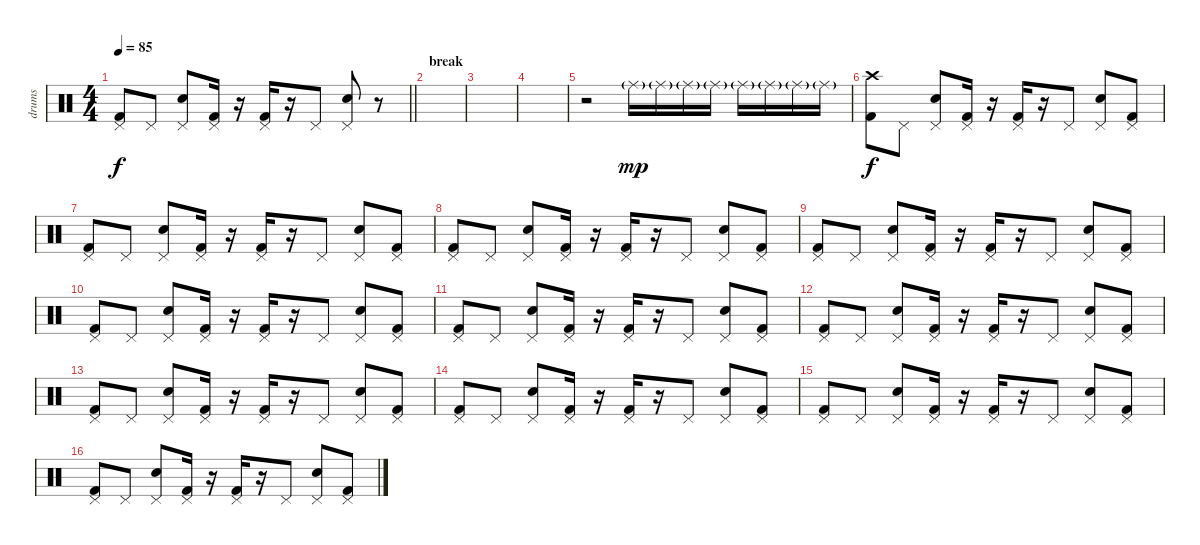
\track ("drums" "drums") {instrument percussion}
\staff {score}
\articulation defaults
\ts (4 4)
\tempo 85
\clef neutral
\barLineRight lightlight
\ks c
("Kick (hit) 2" "Pedal Hi-Hat (hit)").8{dy f} "Pedal Hi-Hat (hit)".8 ("Electric Snare (hit)" "Pedal Hi-Hat (hit)").8 ("Kick (hit) 2" "Pedal Hi-Hat (hit)").16 r.16 ("Kick (hit) 2" "Pedal Hi-Hat (hit)").16 r.16 "Pedal Hi-Hat (hit)".8 ("Electric Snare (hit)" "Pedal Hi-Hat (hit)").8 r.8 |
\section ("" "break")
|
|
|
r.2 "Ride (middle)"{g}.16{dy mp} "Ride (middle)"{g}.16 "Ride (middle)"{g}.16 "Ride (middle)"{g}.16 "Ride (middle)"{g}.16 "Ride (middle)"{g}.16 "Ride (middle)"{g}.16 "Ride (middle)"{g}.16 |
("Kick (hit) 2" "Crash high (hit)").8{dy f} "Pedal Hi-Hat (hit)".8 ("Electric Snare (hit)" "Pedal Hi-Hat (hit)").8 ("Kick (hit) 2" "Pedal Hi-Hat (hit)").16 r.16 ("Kick (hit) 2" "Pedal Hi-Hat (hit)").16 r.16 "Pedal Hi-Hat (hit)".8 ("Electric Snare (hit)" "Pedal Hi-Hat (hit)").8 ("Kick (hit) 2" "Pedal Hi-Hat (hit)").8 |
("Kick (hit) 2" "Pedal Hi-Hat (hit)").8 "Pedal Hi-Hat (hit)".8 ("Electric Snare (hit)" "Pedal Hi-Hat (hit)").8 ("Kick (hit) 2" "Pedal Hi-Hat (hit)").16 r.16 ("Kick (hit) 2" "Pedal Hi-Hat (hit)").16 r.16 "Pedal Hi-Hat (hit)".8 ("Electric Snare (hit)" "Pedal Hi-Hat (hit)").8 ("Kick (hit) 2" "Pedal Hi-Hat (hit)").8 |
("Kick (hit) 2" "Pedal Hi-Hat (hit)").8 "Pedal Hi-Hat (hit)".8 ("Electric Snare (hit)" "Pedal Hi-Hat (hit)").8 ("Kick (hit) 2" "Pedal Hi-Hat (hit)").16 r.16 ("Kick (hit) 2" "Pedal Hi-Hat (hit)").16 r.16 "Pedal Hi-Hat (hit)".8 ("Electric Snare (hit)" "Pedal Hi-Hat (hit)").8 ("Kick (hit) 2" "Pedal Hi-Hat (hit)").8 |
("Kick (hit) 2" "Pedal Hi-Hat (hit)").8 "Pedal Hi-Hat (hit)".8 ("Electric Snare (hit)" "Pedal Hi-Hat (hit)").8 ("Kick (hit) 2" "Pedal Hi-Hat (hit)").16 r.16 ("Kick (hit) 2" "Pedal Hi-Hat (hit)").16 r.16 "Pedal Hi-Hat (hit)".8 ("Electric Snare (hit)" "Pedal Hi-Hat (hit)").8 ("Kick (hit) 2" "Pedal Hi-Hat (hit)").8 |
("Kick (hit) 2" "Pedal Hi-Hat (hit)").8 "Pedal Hi-Hat (hit)".8 ("Electric Snare (hit)" "Pedal Hi-Hat (hit)").8 ("Kick (hit) 2" "Pedal Hi-Hat (hit)").16 r.16 ("Kick (hit) 2" "Pedal Hi-Hat (hit)").16 r.16 "Pedal Hi-Hat (hit)".8 ("Electric Snare (hit)" "Pedal Hi-Hat (hit)").8 ("Kick (hit) 2" "Pedal Hi-Hat (hit)").8 |
("Kick (hit) 2" "Pedal Hi-Hat (hit)").8 "Pedal Hi-Hat (hit)".8 ("Electric Snare (hit)" "Pedal Hi-Hat (hit)").8 ("Kick (hit) 2" "Pedal Hi-Hat (hit)").16 r.16 ("Kick (hit) 2" "Pedal Hi-Hat (hit)").16 r.16 "Pedal Hi-Hat (hit)".8 ("Electric Snare (hit)" "Pedal Hi-Hat (hit)").8 ("Kick (hit) 2" "Pedal Hi-Hat (hit)").8 |
("Kick (hit) 2" "Pedal Hi-Hat (hit)").8 "Pedal Hi-Hat (hit)".8 ("Electric Snare (hit)" "Pedal Hi-Hat (hit)").8 ("Kick (hit) 2" "Pedal Hi-Hat (hit)").16 r.16 ("Kick (hit) 2" "Pedal Hi-Hat (hit)").16 r.16 "Pedal Hi-Hat (hit)".8 ("Electric Snare (hit)" "Pedal Hi-Hat (hit)").8 ("Kick (hit) 2" "Pedal Hi-Hat (hit)").8 |
("Kick (hit) 2" "Pedal Hi-Hat (hit)").8 "Pedal Hi-Hat (hit)".8 ("Electric Snare (hit)" "Pedal Hi-Hat (hit)").8 ("Kick (hit) 2" "Pedal Hi-Hat (hit)").16 r.16 ("Kick (hit) 2" "Pedal Hi-Hat (hit)").16 r.16 "Pedal Hi-Hat (hit)".8 ("Electric Snare (hit)" "Pedal Hi-Hat (hit)").8 ("Kick (hit) 2" "Pedal Hi-Hat (hit)").8 |
("Kick (hit) 2" "Pedal Hi-Hat (hit)").8 "Pedal Hi-Hat (hit)".8 ("Electric Snare (hit)" "Pedal Hi-Hat (hit)").8 ("Kick (hit) 2" "Pedal Hi-Hat (hit)").16 r.16 ("Kick (hit) 2" "Pedal Hi-Hat (hit)").16 r.16 "Pedal Hi-Hat (hit)".8 ("Electric Snare (hit)" "Pedal Hi-Hat (hit)").8 ("Kick (hit) 2" "Pedal Hi-Hat (hit)").8 |
("Kick (hit) 2" "Pedal Hi-Hat (hit)").8 "Pedal Hi-Hat (hit)".8 ("Electric Snare (hit)" "Pedal Hi-Hat (hit)").8 ("Kick (hit) 2" "Pedal Hi-Hat (hit)").16 r.16 ("Kick (hit) 2" "Pedal Hi-Hat (hit)").16 r.16 "Pedal Hi-Hat (hit)".8 ("Electric Snare (hit)" "Pedal Hi-Hat (hit)").8 ("Kick (hit) 2" "Pedal Hi-Hat (hit)").8 |
("Kick (hit) 2" "Pedal Hi-Hat (hit)").8 "Pedal Hi-Hat (hit)".8 ("Electric Snare (hit)" "Pedal Hi-Hat (hit)").8 ("Kick (hit) 2" "Pedal Hi-Hat (hit)").16 r.16 ("Kick (hit) 2" "Pedal Hi-Hat (hit)").16 r.16 "Pedal Hi-Hat (hit)".8 ("Electric Snare (hit)" "Pedal Hi-Hat (hit)").8 ("Kick (hit) 2" "Pedal Hi-Hat (hit)").8
